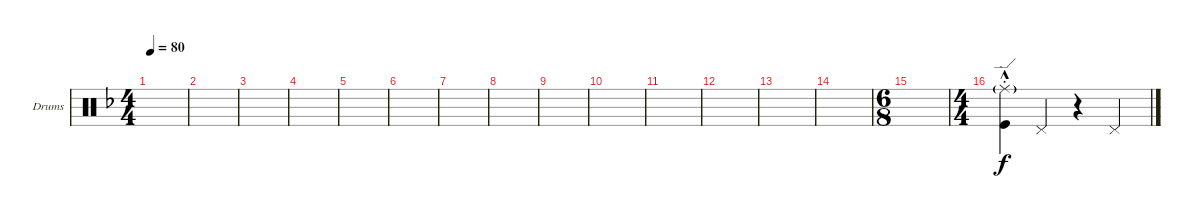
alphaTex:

\defaultSystemsLayout 4
\bracketExtendMode groupsimilarinstruments
\firstSystemTrackNameOrientation horizontal
\otherSystemsTrackNameOrientation horizontal
\track ("Drumkit" "Drums") {instrument percussion}
\staff {score}
\articulation defaults
\ts (4 4)
\tempo 80
\clef neutral
\ks f
|
|
|
|
|
|
|
|
|
|
|
|
|
|
\ts (6 8)
|
\ts (4 4)
("Kick (hit)"{hac st} "Ride (edge)"{g}).4 "Pedal Hi-Hat (hit)".4 r.4 "Pedal Hi-Hat (hit)".4
